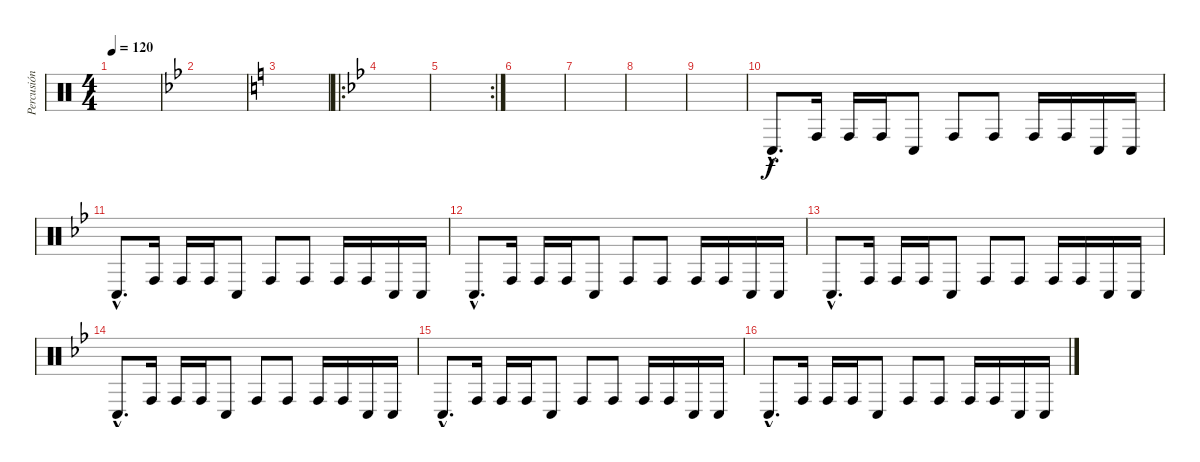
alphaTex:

\track ("Percusión" "Percusión") {instrument percussion}
\staff {score}
\articulation defaults
\ts (4 4)
\tempo 120
\clef neutral
\ks c
|
\ks bb
|
\ks c
|
\ro
\ks bb
|
\rc 2
|
|
|
|
|
"Conga low (hit)"{hac}.8{d} "Conga high (hit)".16 "Conga high (hit)".16 "Conga high (hit)".16 "Conga low (hit)".8 "Conga high (hit)".8 "Conga high (hit)".8 "Conga high (hit)".16 "Conga high (hit)".16 "Conga low (hit)".16 "Conga low (hit)".16 |
"Conga low (hit)"{hac}.8{d} "Conga high (hit)".16 "Conga high (hit)".16 "Conga high (hit)".16 "Conga low (hit)".8 "Conga high (hit)".8 "Conga high (hit)".8 "Conga high (hit)".16 "Conga high (hit)".16 "Conga low (hit)".16 "Conga low (hit)".16 |
"Conga low (hit)"{hac}.8{d} "Conga high (hit)".16 "Conga high (hit)".16 "Conga high (hit)".16 "Conga low (hit)".8 "Conga high (hit)".8 "Conga high (hit)".8 "Conga high (hit)".16 "Conga high (hit)".16 "Conga low (hit)".16 "Conga low (hit)".16 |
"Conga low (hit)"{hac}.8{d} "Conga high (hit)".16 "Conga high (hit)".16 "Conga high (hit)".16 "Conga low (hit)".8 "Conga high (hit)".8 "Conga high (hit)".8 "Conga high (hit)".16 "Conga high (hit)".16 "Conga low (hit)".16 "Conga low (hit)".16 |
"Conga low (hit)"{hac}.8{d} "Conga high (hit)".16 "Conga high (hit)".16 "Conga high (hit)".16 "Conga low (hit)".8 "Conga high (hit)".8 "Conga high (hit)".8 "Conga high (hit)".16 "Conga high (hit)".16 "Conga low (hit)".16 "Conga low (hit)".16 |
"Conga low (hit)"{hac}.8{d} "Conga high (hit)".16 "Conga high (hit)".16 "Conga high (hit)".16 "Conga low (hit)".8 "Conga high (hit)".8 "Conga high (hit)".8 "Conga high (hit)".16 "Conga high (hit)".16 "Conga low (hit)".16 "Conga low (hit)".16 |
"Conga low (hit)"{hac}.8{d} "Conga high (hit)".16 "Conga high (hit)".16 "Conga high (hit)".16 "Conga low (hit)".8 "Conga high (hit)".8 "Conga high (hit)".8 "Conga high (hit)".16 "Conga high (hit)".16 "Conga low (hit)".16 "Conga low (hit)".16
